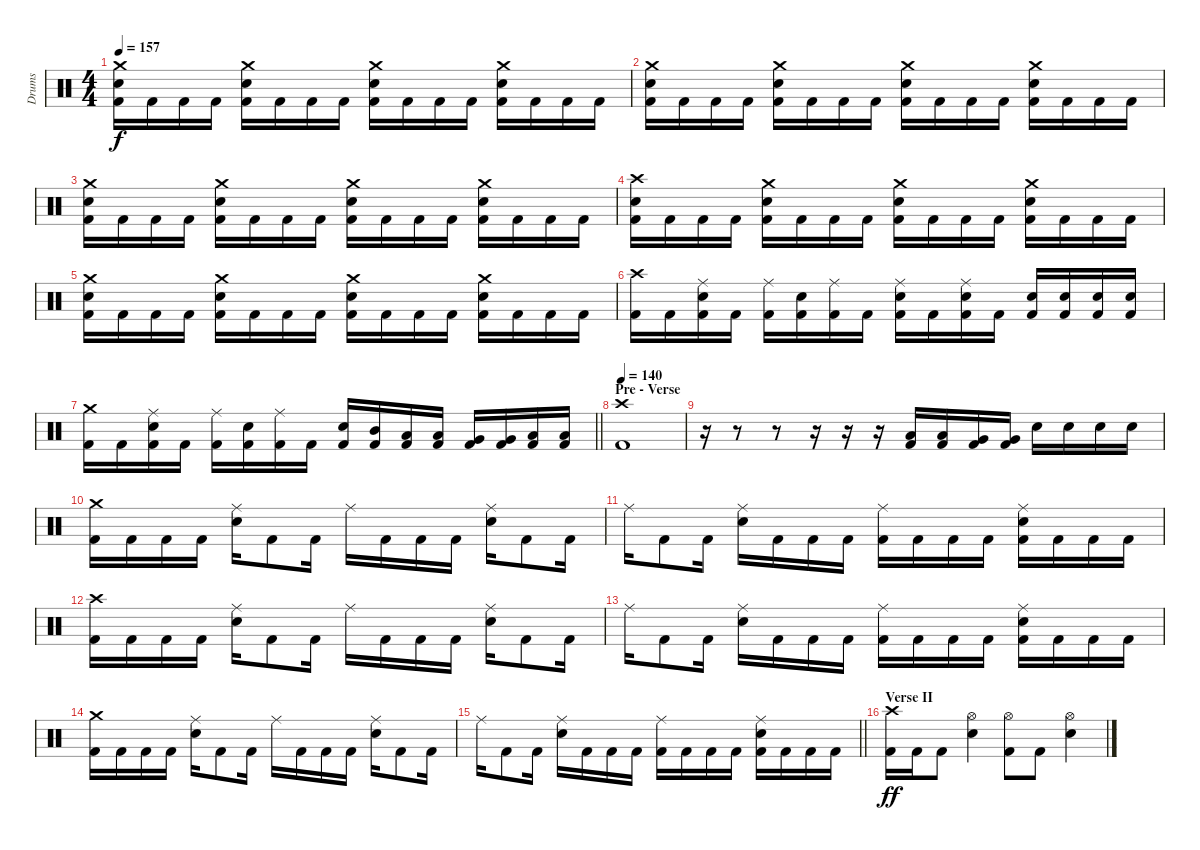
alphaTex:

\track ("Drums" "Drums") {instrument percussion}
\staff {score}
\articulation defaults
\ts (4 4)
\tempo 157
\clef neutral
\ks c
("Crash medium (hit)" "Electric Snare (hit)" "Kick (hit) 2").16{dy f} "Kick (hit) 2".16 "Kick (hit) 2".16 "Kick (hit) 2".16 ("Crash medium (hit)" "Electric Snare (hit)" "Kick (hit) 2").16 "Kick (hit) 2".16 "Kick (hit) 2".16 "Kick (hit) 2".16 ("Crash medium (hit)" "Electric Snare (hit)" "Kick (hit) 2").16 "Kick (hit) 2".16 "Kick (hit) 2".16 "Kick (hit) 2".16 ("Crash medium (hit)" "Electric Snare (hit)" "Kick (hit) 2").16 "Kick (hit) 2".16 "Kick (hit) 2".16 "Kick (hit) 2".16 |
("Crash medium (hit)" "Electric Snare (hit)" "Kick (hit) 2").16 "Kick (hit) 2".16 "Kick (hit) 2".16 "Kick (hit) 2".16 ("Crash medium (hit)" "Electric Snare (hit)" "Kick (hit) 2").16 "Kick (hit) 2".16 "Kick (hit) 2".16 "Kick (hit) 2".16 ("Crash medium (hit)" "Electric Snare (hit)" "Kick (hit) 2").16 "Kick (hit) 2".16 "Kick (hit) 2".16 "Kick (hit) 2".16 ("Crash medium (hit)" "Electric Snare (hit)" "Kick (hit) 2").16 "Kick (hit) 2".16 "Kick (hit) 2".16 "Kick (hit) 2".16 |
("Crash medium (hit)" "Electric Snare (hit)" "Kick (hit) 2").16 "Kick (hit) 2".16 "Kick (hit) 2".16 "Kick (hit) 2".16 ("Crash medium (hit)" "Electric Snare (hit)" "Kick (hit) 2").16 "Kick (hit) 2".16 "Kick (hit) 2".16 "Kick (hit) 2".16 ("Crash medium (hit)" "Electric Snare (hit)" "Kick (hit) 2").16 "Kick (hit) 2".16 "Kick (hit) 2".16 "Kick (hit) 2".16 ("Crash medium (hit)" "Electric Snare (hit)" "Kick (hit) 2").16 "Kick (hit) 2".16 "Kick (hit) 2".16 "Kick (hit) 2".16 |
("Crash high (hit)" "Electric Snare (hit)" "Kick (hit) 2").16 "Kick (hit) 2".16 "Kick (hit) 2".16 "Kick (hit) 2".16 ("Crash medium (hit)" "Electric Snare (hit)" "Kick (hit) 2").16 "Kick (hit) 2".16 "Kick (hit) 2".16 "Kick (hit) 2".16 ("Crash medium (hit)" "Electric Snare (hit)" "Kick (hit) 2").16 "Kick (hit) 2".16 "Kick (hit) 2".16 "Kick (hit) 2".16 ("Crash medium (hit)" "Electric Snare (hit)" "Kick (hit) 2").16 "Kick (hit) 2".16 "Kick (hit) 2".16 "Kick (hit) 2".16 |
("Crash medium (hit)" "Electric Snare (hit)" "Kick (hit) 2").16 "Kick (hit) 2".16 "Kick (hit) 2".16 "Kick (hit) 2".16 ("Crash medium (hit)" "Electric Snare (hit)" "Kick (hit) 2").16 "Kick (hit) 2".16 "Kick (hit) 2".16 "Kick (hit) 2".16 ("Crash medium (hit)" "Electric Snare (hit)" "Kick (hit) 2").16 "Kick (hit) 2".16 "Kick (hit) 2".16 "Kick (hit) 2".16 ("Crash medium (hit)" "Electric Snare (hit)" "Kick (hit) 2").16 "Kick (hit) 2".16 "Kick (hit) 2".16 "Kick (hit) 2".16 |
("Crash high (hit)" "Kick (hit) 2").16 "Kick (hit) 2".16 ("Ride (middle)" "Electric Snare (hit)" "Kick (hit) 2").16 "Kick (hit) 2".16 ("Ride (middle)" "Kick (hit) 2").16 ("Electric Snare (hit)" "Kick (hit) 2").16 ("Ride (middle)" "Kick (hit) 2").16 "Kick (hit) 2".16 ("Ride (middle)" "Electric Snare (hit)" "Kick (hit) 2").16 "Kick (hit) 2".16 ("Ride (middle)" "Electric Snare (hit)" "Kick (hit) 2").16 "Kick (hit) 2".16 ("Electric Snare (hit)" "Kick (hit) 2").16 ("Electric Snare (hit)" "Kick (hit) 2").16 ("Electric Snare (hit)" "Kick (hit) 2").16 ("Electric Snare (hit)" "Kick (hit) 2").16 |
\barLineRight lightlight
("Crash medium (hit)" "Kick (hit) 2").16 "Kick (hit) 2".16 ("Ride (middle)" "Electric Snare (hit)" "Kick (hit) 2").16 "Kick (hit) 2".16 ("Ride (middle)" "Kick (hit) 2").16 ("Electric Snare (hit)" "Kick (hit) 2").16 ("Ride (middle)" "Kick (hit) 2").16 "Kick (hit) 2".16 ("Electric Snare (hit)" "Kick (hit) 2").16 ("Mid Tom (hit)" "Kick (hit) 2").16 ("Low Tom (hit)" "Kick (hit) 2").16 ("Low Tom (hit)" "Kick (hit) 2").16 ("Very Low Tom (hit)" "Kick (hit) 2").16 ("Very Low Tom (hit)" "Kick (hit) 2").16 ("Low Floor Tom (hit)" "Kick (hit) 2").16 ("Low Floor Tom (hit)" "Kick (hit) 2").16 |
\section ("" "Pre - Verse")
\tempo 140
("Crash high (hit)" "Kick (hit) 2").1 |
r.16 r.8 r.8 r.16 r.16 r.16 ("Low Tom (hit)" "Kick (hit) 2").16 ("Low Tom (hit)" "Kick (hit) 2").16 ("Very Low Tom (hit)" "Kick (hit) 2").16 ("Very Low Tom (hit)" "Kick (hit) 2").16 "Electric Snare (hit)".16 "Electric Snare (hit)".16 "Electric Snare (hit)".16 "Electric Snare (hit)".16 |
("Crash medium (hit)" "Kick (hit) 2").16 "Kick (hit) 2".16 "Kick (hit) 2".16 "Kick (hit) 2".16 ("Ride (middle)" "Electric Snare (hit)").16 "Kick (hit) 2".8 "Kick (hit) 2".16 "Ride (middle)".16 "Kick (hit) 2".16 "Kick (hit) 2".16 "Kick (hit) 2".16 ("Ride (middle)" "Electric Snare (hit)").16 "Kick (hit) 2".8 "Kick (hit) 2".16 |
"Ride (middle)".16 "Kick (hit) 2".8 "Kick (hit) 2".16 ("Ride (middle)" "Electric Snare (hit)").16 "Kick (hit) 2".16 "Kick (hit) 2".16 "Kick (hit) 2".16 ("Ride (middle)" "Kick (hit) 2").16 "Kick (hit) 2".16 "Kick (hit) 2".16 "Kick (hit) 2".16 ("Ride (middle)" "Electric Snare (hit)" "Kick (hit) 2").16 "Kick (hit) 2".16 "Kick (hit) 2".16 "Kick (hit) 2".16 |
("Crash high (hit)" "Kick (hit) 2").16 "Kick (hit) 2".16 "Kick (hit) 2".16 "Kick (hit) 2".16 ("Ride (middle)" "Electric Snare (hit)").16 "Kick (hit) 2".8 "Kick (hit) 2".16 "Ride (middle)".16 "Kick (hit) 2".16 "Kick (hit) 2".16 "Kick (hit) 2".16 ("Ride (middle)" "Electric Snare (hit)").16 "Kick (hit) 2".8 "Kick (hit) 2".16 |
"Ride (middle)".16 "Kick (hit) 2".8 "Kick (hit) 2".16 ("Ride (middle)" "Electric Snare (hit)").16 "Kick (hit) 2".16 "Kick (hit) 2".16 "Kick (hit) 2".16 ("Ride (middle)" "Kick (hit) 2").16 "Kick (hit) 2".16 "Kick (hit) 2".16 "Kick (hit) 2".16 ("Ride (middle)" "Electric Snare (hit)" "Kick (hit) 2").16 "Kick (hit) 2".16 "Kick (hit) 2".16 "Kick (hit) 2".16 |
("Crash medium (hit)" "Kick (hit) 2").16 "Kick (hit) 2".16 "Kick (hit) 2".16 "Kick (hit) 2".16 ("Ride (middle)" "Electric Snare (hit)").16 "Kick (hit) 2".8 "Kick (hit) 2".16 "Ride (middle)".16 "Kick (hit) 2".16 "Kick (hit) 2".16 "Kick (hit) 2".16 ("Ride (middle)" "Electric Snare (hit)").16 "Kick (hit) 2".8 "Kick (hit) 2".16 |
\barLineRight lightlight "Ride (middle)".16 "Kick (hit) 2".8 "Kick (hit) 2".16
("Ride (middle)" "Electric Snare (hit)").16 "Kick (hit) 2".16 "Kick (hit) 2".16 "Kick (hit) 2".16 ("Ride (middle)" "Kick (hit) 2").16 "Kick (hit) 2".16 "Kick (hit) 2".16 "Kick (hit) 2".16 ("Ride (middle)" "Electric Snare (hit)" "Kick (hit) 2").16 "Kick (hit) 2".16 "Kick (hit) 2".16 "Kick (hit) 2".16 |
\section ("" "Verse II")
("Crash high (hit)" "Kick (hit) 2").16{dy ff} "Kick (hit) 2".16 "Kick (hit) 2".8 ("Hi-Hat (open)" "Electric Snare (hit)").4 ("Hi-Hat (open)" "Kick (hit) 2").8 "Kick (hit) 2".8 ("Hi-Hat (open)" "Electric Snare (hit)").4
